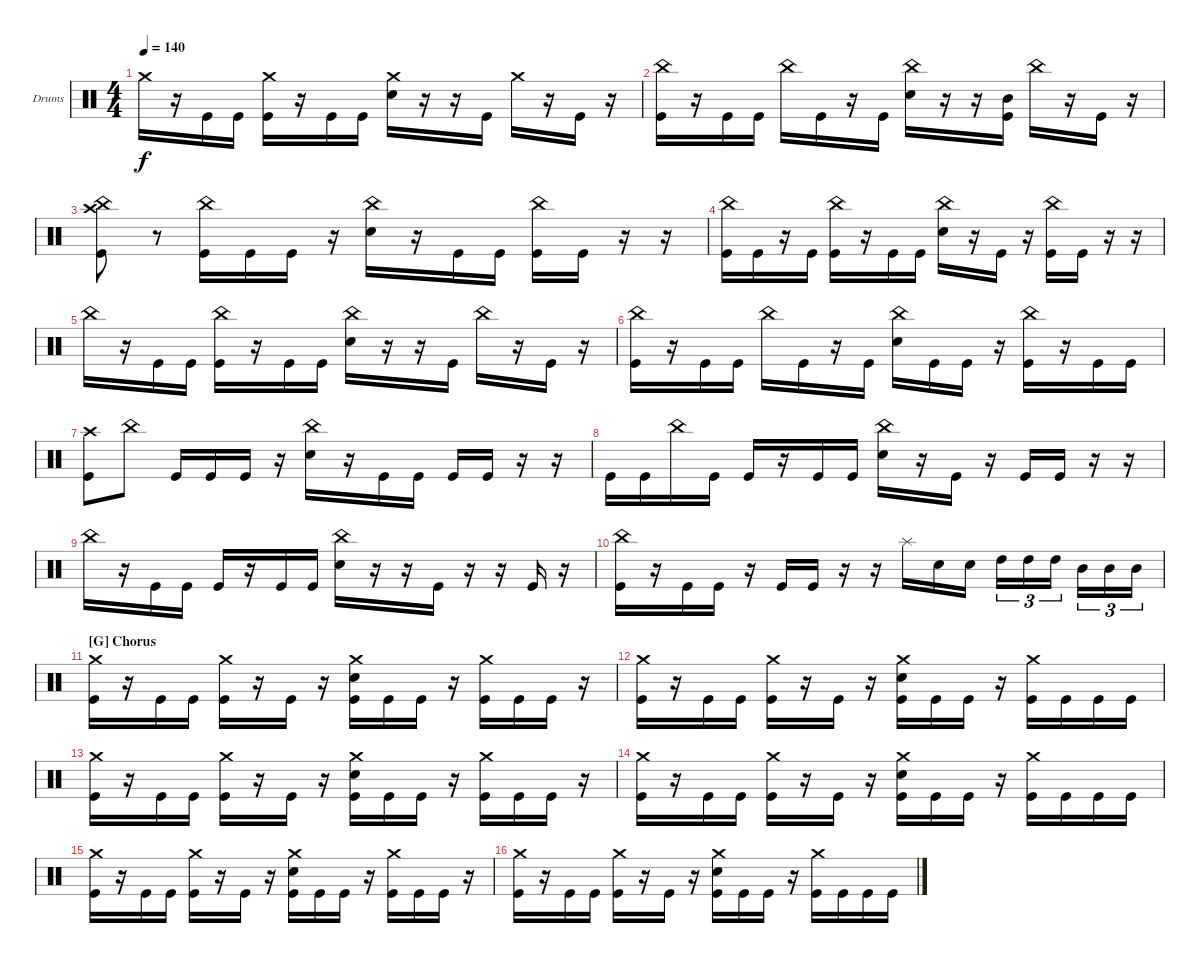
\bracketExtendMode groupsimilarinstruments
\firstSystemTrackNameOrientation horizontal
\otherSystemsTrackNameOrientation horizontal
\track ("Drumkit" "Drums") {instrument percussion}
\staff {score}
\articulation defaults
\ts (4 4)
\tempo 140
\clef neutral
\ks c "Crash medium (hit)".16{dy f}
r.16 "Kick (hit)".16 "Kick (hit)".16 ("Kick (hit)" "Crash medium (hit)").16 r.16 "Kick (hit)".16 "Kick (hit)".16 ("Snare (hit) 2" "Crash medium (hit)").16 r.16 r.16 "Kick (hit)".16 "Crash medium (hit)".16 r.16 "Kick (hit)".16 r.16 |
("Kick (hit)" "China (hit)").16 r.16 "Kick (hit)".16 "Kick (hit)".16 "China (hit)".16 "Kick (hit)".16 r.16 "Kick (hit)".16 ("Snare (hit) 2" "China (hit)").16 r.16 r.16 ("Kick (hit)" "Mid Tom (hit)").16 "China (hit)".16 r.16 "Kick (hit)".16 r.16 |
("Kick (hit)" "Crash high (hit)" "China (hit)").8 r.8 ("Kick (hit)" "China (hit)").16 "Kick (hit)".16 "Kick (hit)".16 r.16 ("Snare (hit) 2" "China (hit)").16 r.16 "Kick (hit)".16 "Kick (hit)".16 ("Kick (hit)" "China (hit)").16 "Kick (hit)".16 r.16 r.16 |
("Kick (hit)" "China (hit)").16 "Kick (hit)".16 r.16 "Kick (hit)".16 ("Kick (hit)" "China (hit)").16 r.16 "Kick (hit)".16 "Kick (hit)".16 ("Snare (hit) 2" "China (hit)").16 r.16 "Kick (hit)".16 r.16 ("Kick (hit)" "China (hit)").16 "Kick (hit)".16 r.16 r.16 |
"China (hit)".16 r.16 "Kick (hit)".16 "Kick (hit)".16 ("Kick (hit)" "China (hit)").16 r.16 "Kick (hit)".16 "Kick (hit)".16 ("Snare (hit) 2" "China (hit)").16 r.16 r.16 "Kick (hit)".16 "China (hit)".16 r.16 "Kick (hit)".16 r.16 |
("Kick (hit)" "China (hit)").16 r.16 "Kick (hit)".16 "Kick (hit)".16 "China (hit)".16 "Kick (hit)".16 r.16 "Kick (hit)".16 ("Snare (hit) 2" "China (hit)").16 "Kick (hit)".16 "Kick (hit)".16 r.16 ("Kick (hit)" "China (hit)").16 r.16 "Kick (hit)".16 "Kick (hit)".16 |
("Kick (hit)" "Crash high (hit)").8 "China (hit)".8 "Kick (hit)".16 "Kick (hit)".16 "Kick (hit)".16 r.16 ("Snare (hit) 2" "China (hit)").16 r.16 "Kick (hit)".16 "Kick (hit)".16 "Kick (hit)".16 "Kick (hit)".16 r.16 r.16 |
"Kick (hit)".16 "Kick (hit)".16 "China (hit)".16 "Kick (hit)".16 "Kick (hit)".16 r.16 "Kick (hit)".16 "Kick (hit)".16 ("Snare (hit) 2" "China (hit)").16 r.16 "Kick (hit)".16 r.16 "Kick (hit)".16 "Kick (hit)".16 r.16 r.16 |
"China (hit)".16 r.16 "Kick (hit)".16 "Kick (hit)".16 "Kick (hit)".16 r.16 "Kick (hit)".16 "Kick (hit)".16 ("Snare (hit) 2" "China (hit)").16 r.16 r.16 "Kick (hit)".16 r.16 r.16 "Kick (hit)".16 r.16 |
("Kick (hit)" "China (hit)").16 r.16 "Kick (hit)".16 "Kick (hit)".16 r.16 "Kick (hit)".16 "Kick (hit)".16 r.16 r.16 "Splash (hit)".16 "Snare (hit) 2".16 "Snare (hit) 2".16 "High Tom (hit)".16{tu (3 2)} "High Tom (hit)".16{tu (3 2)} "High Tom (hit)".16{tu (3 2)} "Mid Tom (hit)".16{tu (3 2)} "Mid Tom (hit)".16{tu (3 2)} "Mid Tom (hit)".16{tu (3 2)} |
\section ("G" "Chorus")
("Kick (hit)" "Crash medium (hit)").16 r.16 "Kick (hit)".16 "Kick (hit)".16 ("Kick (hit)" "Crash medium (hit)").16 r.16 "Kick (hit)".16 r.16 ("Kick (hit)" "Snare (hit) 2" "Crash medium (hit)").16 "Kick (hit)".16 "Kick (hit)".16 r.16 ("Kick (hit)" "Crash medium (hit)").16 "Kick (hit)".16 "Kick (hit)".16 r.16 |
("Kick (hit)" "Crash medium (hit)").16 r.16 "Kick (hit)".16 "Kick (hit)".16 ("Kick (hit)" "Crash medium (hit)").16 r.16 "Kick (hit)".16 r.16 ("Kick (hit)" "Snare (hit) 2" "Crash medium (hit)").16 "Kick (hit)".16 "Kick (hit)".16 r.16 ("Kick (hit)" "Crash medium (hit)").16 "Kick (hit)".16 "Kick (hit)".16 "Kick (hit)".16 |
("Kick (hit)" "Crash medium (hit)").16 r.16 "Kick (hit)".16 "Kick (hit)".16 ("Kick (hit)" "Crash medium (hit)").16 r.16 "Kick (hit)".16 r.16 ("Kick (hit)" "Snare (hit) 2" "Crash medium (hit)").16 "Kick (hit)".16 "Kick (hit)".16 r.16 ("Kick (hit)" "Crash medium (hit)").16 "Kick (hit)".16 "Kick (hit)".16 r.16 |
("Kick (hit)" "Crash medium (hit)").16 r.16 "Kick (hit)".16 "Kick (hit)".16 ("Kick (hit)" "Crash medium (hit)").16 r.16 "Kick (hit)".16 r.16 ("Kick (hit)" "Snare (hit) 2" "Crash medium (hit)").16 "Kick (hit)".16 "Kick (hit)".16 r.16 ("Kick (hit)" "Crash medium (hit)").16 "Kick (hit)".16 "Kick (hit)".16 "Kick (hit)".16 |
("Kick (hit)" "Crash medium (hit)").16 r.16 "Kick (hit)".16 "Kick (hit)".16 ("Kick (hit)" "Crash medium (hit)").16 r.16 "Kick (hit)".16 r.16 ("Kick (hit)" "Snare (hit) 2" "Crash medium (hit)").16 "Kick (hit)".16 "Kick (hit)".16 r.16 ("Kick (hit)" "Crash medium (hit)").16 "Kick (hit)".16 "Kick (hit)".16 r.16 |
("Kick (hit)" "Crash medium (hit)").16 r.16 "Kick (hit)".16 "Kick (hit)".16 ("Kick (hit)" "Crash medium (hit)").16 r.16 "Kick (hit)".16 r.16 ("Kick (hit)" "Snare (hit) 2" "Crash medium (hit)").16 "Kick (hit)".16 "Kick (hit)".16 r.16 ("Kick (hit)" "Crash medium (hit)").16 "Kick (hit)".16 "Kick (hit)".16 "Kick (hit)".16
